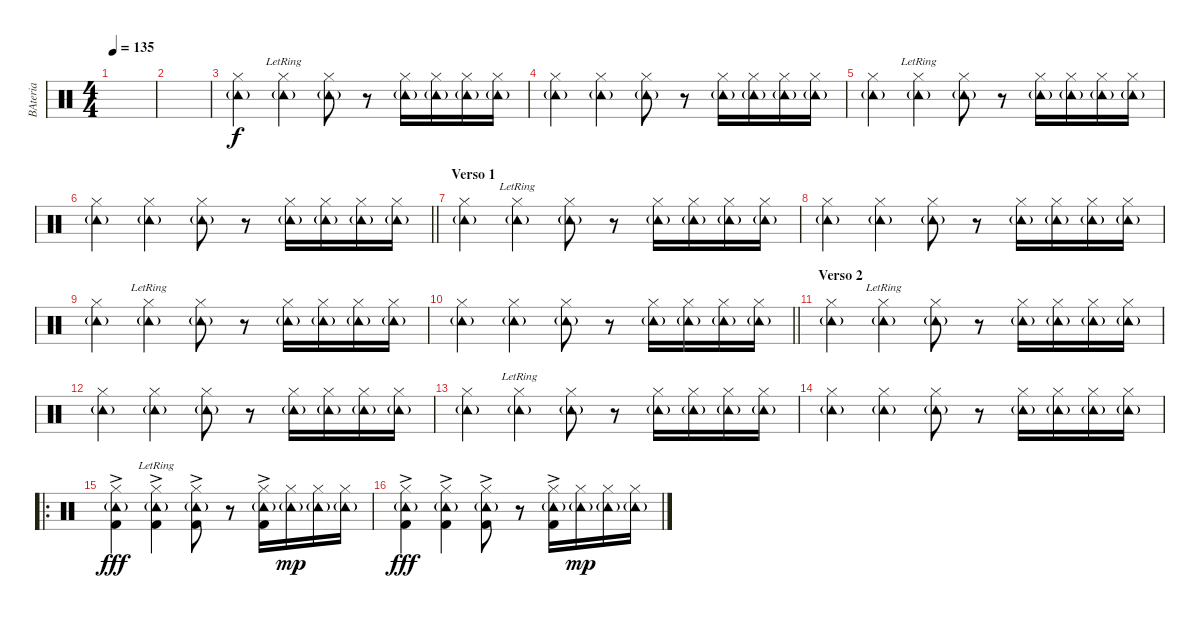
\track ("BAteria" "BAteria") {instrument percussion}
\staff {score}
\articulation defaults
\ts (4 4)
\tempo 135
\clef neutral
\ks c
|
|
("Hi-Hat (closed)" "Tambourine (hit)"{g}).4 ("Hi-Hat (closed)" "Tambourine (hit)"{g lr}).4 ("Hi-Hat (closed)" "Tambourine (hit)"{g}).8 r.8 ("Hi-Hat (closed)" "Tambourine (hit)"{g}).16 ("Hi-Hat (closed)" "Tambourine (hit)"{g}).16 ("Hi-Hat (closed)" "Tambourine (hit)"{g}).16 ("Hi-Hat (closed)" "Tambourine (hit)"{g}).16 |
("Hi-Hat (closed)" "Tambourine (hit)"{g}).4 ("Hi-Hat (closed)" "Tambourine (hit)"{g}).4 ("Hi-Hat (closed)" "Tambourine (hit)"{g}).8 r.8 ("Hi-Hat (closed)" "Tambourine (hit)"{g}).16 ("Hi-Hat (closed)" "Tambourine (hit)"{g}).16 ("Hi-Hat (closed)" "Tambourine (hit)"{g}).16 ("Hi-Hat (closed)" "Tambourine (hit)"{g}).16 |
("Hi-Hat (closed)" "Tambourine (hit)"{g}).4 ("Hi-Hat (closed)" "Tambourine (hit)"{g lr}).4 ("Hi-Hat (closed)" "Tambourine (hit)"{g}).8 r.8 ("Hi-Hat (closed)" "Tambourine (hit)"{g}).16 ("Hi-Hat (closed)" "Tambourine (hit)"{g}).16 ("Hi-Hat (closed)" "Tambourine (hit)"{g}).16 ("Hi-Hat (closed)" "Tambourine (hit)"{g}).16 |
\barLineRight lightlight
("Hi-Hat (closed)" "Tambourine (hit)"{g}).4 ("Hi-Hat (closed)" "Tambourine (hit)"{g}).4 ("Hi-Hat (closed)" "Tambourine (hit)"{g}).8 r.8 ("Hi-Hat (closed)" "Tambourine (hit)"{g}).16 ("Hi-Hat (closed)" "Tambourine (hit)"{g}).16 ("Hi-Hat (closed)" "Tambourine (hit)"{g}).16 ("Hi-Hat (closed)" "Tambourine (hit)"{g}).16 |
\section ("" "Verso 1")
("Hi-Hat (closed)" "Tambourine (hit)"{g}).4 ("Hi-Hat (closed)" "Tambourine (hit)"{g lr}).4 ("Hi-Hat (closed)" "Tambourine (hit)"{g}).8 r.8 ("Hi-Hat (closed)" "Tambourine (hit)"{g}).16 ("Hi-Hat (closed)" "Tambourine (hit)"{g}).16 ("Hi-Hat (closed)" "Tambourine (hit)"{g}).16 ("Hi-Hat (closed)" "Tambourine (hit)"{g}).16 |
("Hi-Hat (closed)" "Tambourine (hit)"{g}).4 ("Hi-Hat (closed)" "Tambourine (hit)"{g}).4 ("Hi-Hat (closed)" "Tambourine (hit)"{g}).8 r.8 ("Hi-Hat (closed)" "Tambourine (hit)"{g}).16 ("Hi-Hat (closed)" "Tambourine (hit)"{g}).16 ("Hi-Hat (closed)" "Tambourine (hit)"{g}).16 ("Hi-Hat (closed)" "Tambourine (hit)"{g}).16 |
("Hi-Hat (closed)" "Tambourine (hit)"{g}).4 ("Hi-Hat (closed)" "Tambourine (hit)"{g lr}).4 ("Hi-Hat (closed)" "Tambourine (hit)"{g}).8 r.8 ("Hi-Hat (closed)" "Tambourine (hit)"{g}).16 ("Hi-Hat (closed)" "Tambourine (hit)"{g}).16 ("Hi-Hat (closed)" "Tambourine (hit)"{g}).16 ("Hi-Hat (closed)" "Tambourine (hit)"{g}).16 |
\barLineRight lightlight
("Hi-Hat (closed)" "Tambourine (hit)"{g}).4 ("Hi-Hat (closed)" "Tambourine (hit)"{g}).4 ("Hi-Hat (closed)" "Tambourine (hit)"{g}).8 r.8 ("Hi-Hat (closed)" "Tambourine (hit)"{g}).16 ("Hi-Hat (closed)" "Tambourine (hit)"{g}).16 ("Hi-Hat (closed)" "Tambourine (hit)"{g}).16 ("Hi-Hat (closed)" "Tambourine (hit)"{g}).16 |
\section ("" "Verso 2")
("Hi-Hat (closed)" "Tambourine (hit)"{g}).4 ("Hi-Hat (closed)" "Tambourine (hit)"{g lr}).4 ("Hi-Hat (closed)" "Tambourine (hit)"{g}).8 r.8 ("Hi-Hat (closed)" "Tambourine (hit)"{g}).16 ("Hi-Hat (closed)" "Tambourine (hit)"{g}).16 ("Hi-Hat (closed)" "Tambourine (hit)"{g}).16 ("Hi-Hat (closed)" "Tambourine (hit)"{g}).16 |
("Hi-Hat (closed)" "Tambourine (hit)"{g}).4 ("Hi-Hat (closed)" "Tambourine (hit)"{g}).4 ("Hi-Hat (closed)" "Tambourine (hit)"{g}).8 r.8 ("Hi-Hat (closed)" "Tambourine (hit)"{g}).16 ("Hi-Hat (closed)" "Tambourine (hit)"{g}).16 ("Hi-Hat (closed)" "Tambourine (hit)"{g}).16 ("Hi-Hat (closed)" "Tambourine (hit)"{g}).16 |
("Hi-Hat (closed)" "Tambourine (hit)"{g}).4 ("Hi-Hat (closed)" "Tambourine (hit)"{g lr}).4 ("Hi-Hat (closed)" "Tambourine (hit)"{g}).8 r.8 ("Hi-Hat (closed)" "Tambourine (hit)"{g}).16 ("Hi-Hat (closed)" "Tambourine (hit)"{g}).16 ("Hi-Hat (closed)" "Tambourine (hit)"{g}).16 ("Hi-Hat (closed)" "Tambourine (hit)"{g}).16 |
("Hi-Hat (closed)" "Tambourine (hit)"{g}).4 ("Hi-Hat (closed)" "Tambourine (hit)"{g}).4 ("Hi-Hat (closed)" "Tambourine (hit)"{g}).8 r.8 ("Hi-Hat (closed)" "Tambourine (hit)"{g}).16 ("Hi-Hat (closed)" "Tambourine (hit)"{g}).16 ("Hi-Hat (closed)" "Tambourine (hit)"{g}).16 ("Hi-Hat (closed)" "Tambourine (hit)"{g}).16 |
\ro
("Hi-Hat (closed)" "Tambourine (hit)"{g} "Kick (hit) 2"{ac}).4{dy fff} ("Hi-Hat (closed)" "Tambourine (hit)"{g lr} "Kick (hit) 2"{ac}).4 ("Hi-Hat (closed)" "Tambourine (hit)"{g} "Kick (hit) 2"{ac}).8 r.8 ("Hi-Hat (closed)" "Tambourine (hit)"{g} "Kick (hit) 2"{ac}).16 ("Hi-Hat (closed)" "Tambourine (hit)"{g}).16{dy mp} ("Hi-Hat (closed)" "Tambourine (hit)"{g}).16 ("Hi-Hat (closed)" "Tambourine (hit)"{g}).16 |
("Hi-Hat (closed)" "Tambourine (hit)"{g} "Kick (hit) 2"{ac}).4{dy fff} ("Hi-Hat (closed)" "Tambourine (hit)"{g} "Kick (hit) 2"{ac}).4 ("Hi-Hat (closed)" "Tambourine (hit)"{g} "Kick (hit) 2"{ac}).8 r.8 ("Hi-Hat (closed)" "Tambourine (hit)"{g} "Kick (hit) 2"{ac}).16 ("Hi-Hat (closed)" "Tambourine (hit)"{g}).16{dy mp} ("Hi-Hat (closed)" "Tambourine (hit)"{g}).16 ("Hi-Hat (closed)" "Tambourine (hit)"{g}).16
